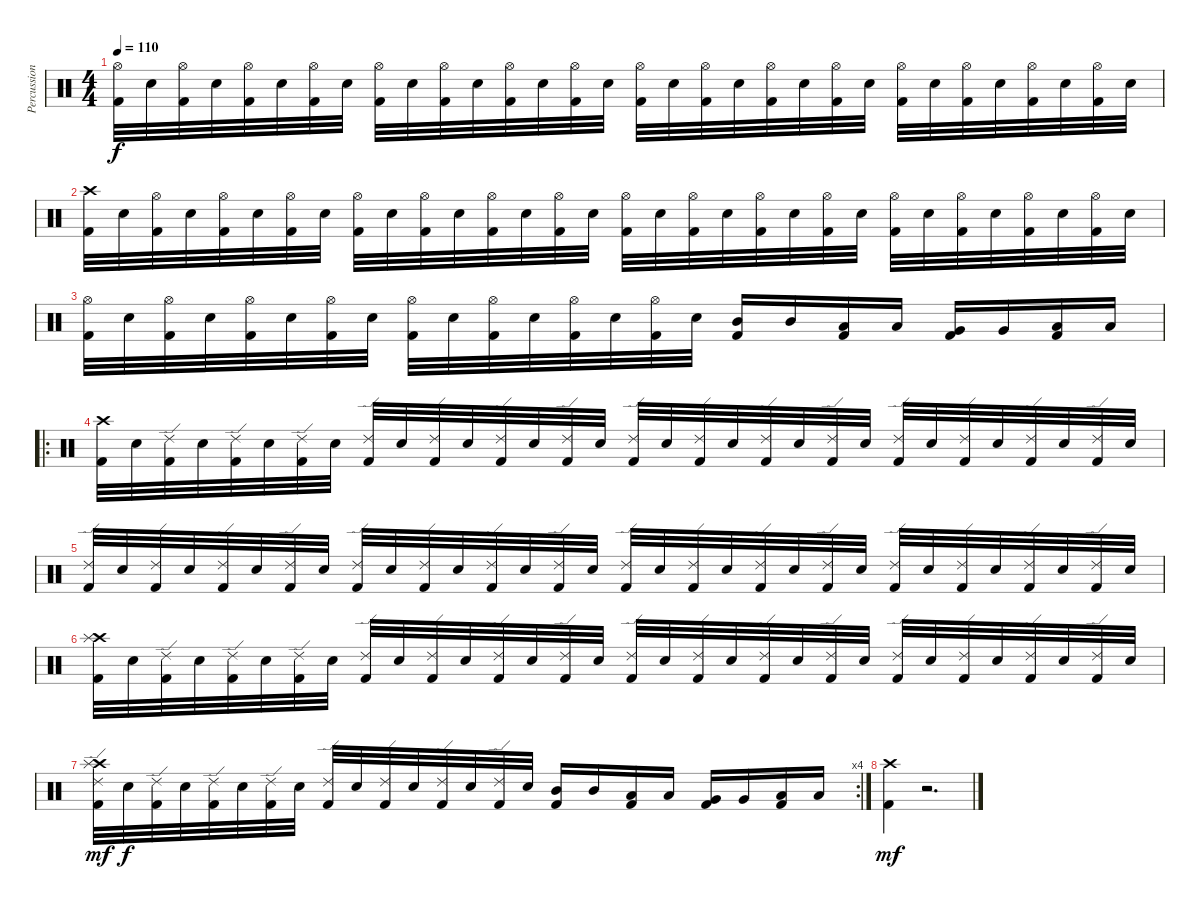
\track ("Percussion" "Percussion") {instrument percussion}
\staff {score}
\articulation defaults
\ts (4 4)
\tempo 110
\clef neutral
\ks c
("Hi-Hat (open)" "Kick (hit) 2").32{dy f} "Snare (hit) 2".32 ("Hi-Hat (open)" "Kick (hit) 2").32 "Snare (hit) 2".32 ("Hi-Hat (open)" "Kick (hit) 2").32 "Snare (hit) 2".32 ("Hi-Hat (open)" "Kick (hit) 2").32 "Snare (hit) 2".32 ("Hi-Hat (open)" "Kick (hit) 2").32 "Snare (hit) 2".32 ("Hi-Hat (open)" "Kick (hit) 2").32 "Snare (hit) 2".32 ("Hi-Hat (open)" "Kick (hit) 2").32 "Snare (hit) 2".32 ("Hi-Hat (open)" "Kick (hit) 2").32 "Snare (hit) 2".32 ("Hi-Hat (open)" "Kick (hit) 2").32 "Snare (hit) 2".32 ("Hi-Hat (open)" "Kick (hit) 2").32 "Snare (hit) 2".32 ("Hi-Hat (open)" "Kick (hit) 2").32 "Snare (hit) 2".32 ("Hi-Hat (open)" "Kick (hit) 2").32 "Snare (hit) 2".32 ("Hi-Hat (open)" "Kick (hit) 2").32 "Snare (hit) 2".32 ("Hi-Hat (open)" "Kick (hit) 2").32 "Snare (hit) 2".32 ("Hi-Hat (open)" "Kick (hit) 2").32 "Snare (hit) 2".32 ("Hi-Hat (open)" "Kick (hit) 2").32 "Snare (hit) 2".32 |
("Crash high (hit)" "Kick (hit) 2").32 "Snare (hit) 2".32 ("Hi-Hat (open)" "Kick (hit) 2").32 "Snare (hit) 2".32 ("Hi-Hat (open)" "Kick (hit) 2").32 "Snare (hit) 2".32 ("Hi-Hat (open)" "Kick (hit) 2").32 "Snare (hit) 2".32 ("Hi-Hat (open)" "Kick (hit) 2").32 "Snare (hit) 2".32 ("Hi-Hat (open)" "Kick (hit) 2").32 "Snare (hit) 2".32 ("Hi-Hat (open)" "Kick (hit) 2").32 "Snare (hit) 2".32 ("Hi-Hat (open)" "Kick (hit) 2").32 "Snare (hit) 2".32 ("Hi-Hat (open)" "Kick (hit) 2").32 "Snare (hit) 2".32 ("Hi-Hat (open)" "Kick (hit) 2").32 "Snare (hit) 2".32 ("Hi-Hat (open)" "Kick (hit) 2").32 "Snare (hit) 2".32 ("Hi-Hat (open)" "Kick (hit) 2").32 "Snare (hit) 2".32 ("Hi-Hat (open)" "Kick (hit) 2").32 "Snare (hit) 2".32 ("Hi-Hat (open)" "Kick (hit) 2").32 "Snare (hit) 2".32 ("Hi-Hat (open)" "Kick (hit) 2").32 "Snare (hit) 2".32 ("Hi-Hat (open)" "Kick (hit) 2").32 "Snare (hit) 2".32 |
("Hi-Hat (open)" "Kick (hit) 2").32 "Snare (hit) 2".32 ("Hi-Hat (open)" "Kick (hit) 2").32 "Snare (hit) 2".32 ("Hi-Hat (open)" "Kick (hit) 2").32 "Snare (hit) 2".32 ("Hi-Hat (open)" "Kick (hit) 2").32 "Snare (hit) 2".32 ("Hi-Hat (open)" "Kick (hit) 2").32 "Snare (hit) 2".32 ("Hi-Hat (open)" "Kick (hit) 2").32 "Snare (hit) 2".32 ("Hi-Hat (open)" "Kick (hit) 2").32 "Snare (hit) 2".32 ("Hi-Hat (open)" "Kick (hit) 2").32 "Snare (hit) 2".32 ("Mid Tom (hit)" "Kick (hit) 2").16 "Mid Tom (hit)".16 ("Low Tom (hit)" "Kick (hit) 2").16 "Low Tom (hit)".16 ("Very Low Tom (hit)" "Kick (hit) 2").16 "Very Low Tom (hit)".16 ("Low Floor Tom (hit)" "Kick (hit) 2").16 "Low Floor Tom (hit)".16 |
\ro
("Crash high (hit)" "Kick (hit) 2").32 "Snare (hit) 2".32 ("Ride (edge) 2" "Kick (hit) 2").32 "Snare (hit) 2".32 ("Ride (edge) 2" "Kick (hit) 2").32 "Snare (hit) 2".32 ("Ride (edge) 2" "Kick (hit) 2").32 "Snare (hit) 2".32 ("Ride (edge) 2" "Kick (hit) 2").32 "Snare (hit) 2".32 ("Ride (edge) 2" "Kick (hit) 2").32 "Snare (hit) 2".32 ("Ride (edge) 2" "Kick (hit) 2").32 "Snare (hit) 2".32 ("Ride (edge) 2" "Kick (hit) 2").32 "Snare (hit) 2".32 ("Ride (edge) 2" "Kick (hit) 2").32 "Snare (hit) 2".32 ("Ride (edge) 2" "Kick (hit) 2").32 "Snare (hit) 2".32 ("Ride (edge) 2" "Kick (hit) 2").32 "Snare (hit) 2".32 ("Ride (edge) 2" "Kick (hit) 2").32 "Snare (hit) 2".32 ("Ride (edge) 2" "Kick (hit) 2").32 "Snare (hit) 2".32 ("Ride (edge) 2" "Kick (hit) 2").32 "Snare (hit) 2".32 ("Ride (edge) 2" "Kick (hit) 2").32 "Snare (hit) 2".32 ("Ride (edge) 2" "Kick (hit) 2").32 "Snare (hit) 2".32 |
("Ride (edge) 2" "Kick (hit) 2").32 "Snare (hit) 2".32 ("Ride (edge) 2" "Kick (hit) 2").32 "Snare (hit) 2".32 ("Ride (edge) 2" "Kick (hit) 2").32 "Snare (hit) 2".32 ("Ride (edge) 2" "Kick (hit) 2").32 "Snare (hit) 2".32 ("Ride (edge) 2" "Kick (hit) 2").32 "Snare (hit) 2".32 ("Ride (edge) 2" "Kick (hit) 2").32 "Snare (hit) 2".32 ("Ride (edge) 2" "Kick (hit) 2").32 "Snare (hit) 2".32 ("Ride (edge) 2" "Kick (hit) 2").32 "Snare (hit) 2".32 ("Ride (edge) 2" "Kick (hit) 2").32 "Snare (hit) 2".32 ("Ride (edge) 2" "Kick (hit) 2").32 "Snare (hit) 2".32 ("Ride (edge) 2" "Kick (hit) 2").32 "Snare (hit) 2".32 ("Ride (edge) 2" "Kick (hit) 2").32 "Snare (hit) 2".32 ("Ride (edge) 2" "Kick (hit) 2").32 "Snare (hit) 2".32 ("Ride (edge) 2" "Kick (hit) 2").32 "Snare (hit) 2".32 ("Ride (edge) 2" "Kick (hit) 2").32 "Snare (hit) 2".32 ("Ride (edge) 2" "Kick (hit) 2").32 "Snare (hit) 2".32 |
("Crash high (hit)" "Splash (hit)" "Kick (hit) 2").32 "Snare (hit) 2".32 ("Ride (edge) 2" "Kick (hit) 2").32 "Snare (hit) 2".32 ("Ride (edge) 2" "Kick (hit) 2").32 "Snare (hit) 2".32 ("Ride (edge) 2" "Kick (hit) 2").32 "Snare (hit) 2".32 ("Ride (edge) 2" "Kick (hit) 2").32 "Snare (hit) 2".32 ("Ride (edge) 2" "Kick (hit) 2").32 "Snare (hit) 2".32 ("Ride (edge) 2" "Kick (hit) 2").32 "Snare (hit) 2".32 ("Ride (edge) 2" "Kick (hit) 2").32 "Snare (hit) 2".32 ("Ride (edge) 2" "Kick (hit) 2").32 "Snare (hit) 2".32 ("Ride (edge) 2" "Kick (hit) 2").32 "Snare (hit) 2".32 ("Ride (edge) 2" "Kick (hit) 2").32 "Snare (hit) 2".32 ("Ride (edge) 2" "Kick (hit) 2").32 "Snare (hit) 2".32 ("Ride (edge) 2" "Kick (hit) 2").32 "Snare (hit) 2".32 ("Ride (edge) 2" "Kick (hit) 2").32 "Snare (hit) 2".32 ("Ride (edge) 2" "Kick (hit) 2").32 "Snare (hit) 2".32 ("Ride (edge) 2" "Kick (hit) 2").32 "Snare (hit) 2".32 |
\rc 4
("Crash high (hit)" "Splash (hit)" "Ride (edge) 2" "Kick (hit) 2").32{dy mf} "Snare (hit) 2".32{dy f} ("Ride (edge) 2" "Kick (hit) 2").32 "Snare (hit) 2".32 ("Ride (edge) 2" "Kick (hit) 2").32 "Snare (hit) 2".32 ("Ride (edge) 2" "Kick (hit) 2").32 "Snare (hit) 2".32 ("Ride (edge) 2" "Kick (hit) 2").32 "Snare (hit) 2".32 ("Ride (edge) 2" "Kick (hit) 2").32 "Snare (hit) 2".32 ("Ride (edge) 2" "Kick (hit) 2").32 "Snare (hit) 2".32 ("Ride (edge) 2" "Kick (hit) 2").32 "Snare (hit) 2".32 ("Mid Tom (hit)" "Kick (hit) 2").16 "Mid Tom (hit)".16 ("Low Tom (hit)" "Kick (hit) 2").16 "Low Tom (hit)".16 ("Very Low Tom (hit)" "Kick (hit) 2").16 "Very Low Tom (hit)".16 ("Low Floor Tom (hit)" "Kick (hit) 2").16 "Low Floor Tom (hit)".16 |
("Crash high (hit)" "Kick (hit) 2").4{dy mf} r.2{d}
